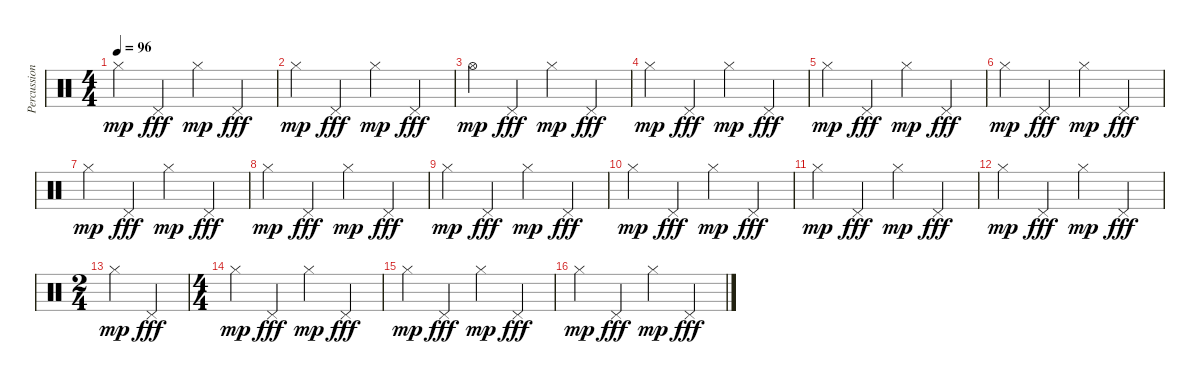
\track ("Percussions" "Percussion") {instrument percussion}
\staff {score}
\articulation defaults
\ts (4 4)
\tempo 96
\clef neutral
\ks c "Hi-Hat (closed)".4{dy mp} "Pedal Hi-Hat (hit)".4{dy fff} "Hi-Hat (closed)".4{dy mp} "Pedal Hi-Hat (hit)".4{dy fff}
|
"Hi-Hat (closed)".4{dy mp} "Pedal Hi-Hat (hit)".4{dy fff} "Hi-Hat (closed)".4{dy mp} "Pedal Hi-Hat (hit)".4{dy fff} |
"Hi-Hat (open)".4{dy mp} "Pedal Hi-Hat (hit)".4{dy fff} "Hi-Hat (closed)".4{dy mp} "Pedal Hi-Hat (hit)".4{dy fff} |
"Hi-Hat (closed)".4{dy mp} "Pedal Hi-Hat (hit)".4{dy fff} "Hi-Hat (closed)".4{dy mp} "Pedal Hi-Hat (hit)".4{dy fff} |
"Hi-Hat (closed)".4{dy mp} "Pedal Hi-Hat (hit)".4{dy fff} "Hi-Hat (closed)".4{dy mp} "Pedal Hi-Hat (hit)".4{dy fff} |
"Hi-Hat (closed)".4{dy mp} "Pedal Hi-Hat (hit)".4{dy fff} "Hi-Hat (closed)".4{dy mp} "Pedal Hi-Hat (hit)".4{dy fff} |
"Hi-Hat (closed)".4{dy mp} "Pedal Hi-Hat (hit)".4{dy fff} "Hi-Hat (closed)".4{dy mp} "Pedal Hi-Hat (hit)".4{dy fff} |
"Hi-Hat (closed)".4{dy mp} "Pedal Hi-Hat (hit)".4{dy fff} "Hi-Hat (closed)".4{dy mp} "Pedal Hi-Hat (hit)".4{dy fff} |
"Hi-Hat (closed)".4{dy mp} "Pedal Hi-Hat (hit)".4{dy fff} "Hi-Hat (closed)".4{dy mp} "Pedal Hi-Hat (hit)".4{dy fff} |
"Hi-Hat (closed)".4{dy mp} "Pedal Hi-Hat (hit)".4{dy fff} "Hi-Hat (closed)".4{dy mp} "Pedal Hi-Hat (hit)".4{dy fff} |
"Hi-Hat (closed)".4{dy mp} "Pedal Hi-Hat (hit)".4{dy fff} "Hi-Hat (closed)".4{dy mp} "Pedal Hi-Hat (hit)".4{dy fff} |
"Hi-Hat (closed)".4{dy mp} "Pedal Hi-Hat (hit)".4{dy fff} "Hi-Hat (closed)".4{dy mp} "Pedal Hi-Hat (hit)".4{dy fff} |
\ts (2 4)
"Hi-Hat (closed)".4{dy mp} "Pedal Hi-Hat (hit)".4{dy fff} |
\ts (4 4)
"Hi-Hat (closed)".4{dy mp} "Pedal Hi-Hat (hit)".4{dy fff} "Hi-Hat (closed)".4{dy mp} "Pedal Hi-Hat (hit)".4{dy fff} |
"Hi-Hat (closed)".4{dy mp} "Pedal Hi-Hat (hit)".4{dy fff} "Hi-Hat (closed)".4{dy mp} "Pedal Hi-Hat (hit)".4{dy fff} |
"Hi-Hat (closed)".4{dy mp} "Pedal Hi-Hat (hit)".4{dy fff} "Hi-Hat (closed)".4{dy mp} "Pedal Hi-Hat (hit)".4{dy fff}
